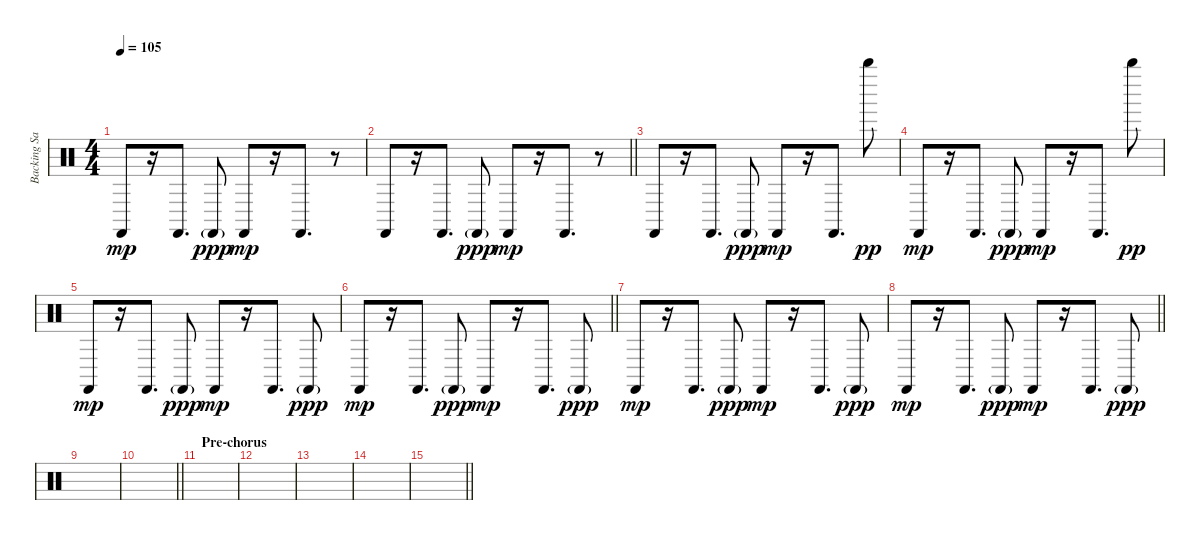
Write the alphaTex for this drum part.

\track ("Backing Samples " "Backing Sa") {instrument percussion}
\staff {score}
\articulation defaults
\ts (4 4)
\tempo 105
\clef neutral
\ks c "Castanets (hit)".8{dy mp}
r.16 "Castanets (hit)".8{d} "Castanets (hit)"{g}.8{dy ppp} "Castanets (hit)".8{dy mp} r.16 "Castanets (hit)".8{d} r.8 |
\barLineRight lightlight "Castanets (hit)".8
r.16 "Castanets (hit)".8{d} "Castanets (hit)"{g}.8{dy ppp} "Castanets (hit)".8{dy mp} r.16 "Castanets (hit)".8{d} r.8 |
"Castanets (hit)".8 r.16 "Castanets (hit)".8{d} "Castanets (hit)"{g}.8{dy ppp} "Castanets (hit)".8{dy mp} r.16 "Castanets (hit)".8{d} "Whistle high (hit)".8{dy pp} |
"Castanets (hit)".8{dy mp} r.16 "Castanets (hit)".8{d} "Castanets (hit)"{g}.8{dy ppp} "Castanets (hit)".8{dy mp} r.16 "Castanets (hit)".8{d} "Whistle high (hit)".8{dy pp} |
"Castanets (hit)".8{dy mp} r.16 "Castanets (hit)".8{d} "Castanets (hit)"{g}.8{dy ppp} "Castanets (hit)".8{dy mp} r.16 "Castanets (hit)".8{d} "Castanets (hit)"{g}.8{dy ppp} |
\barLineRight lightlight "Castanets (hit)".8{dy mp}
r.16 "Castanets (hit)".8{d} "Castanets (hit)"{g}.8{dy ppp} "Castanets (hit)".8{dy mp} r.16 "Castanets (hit)".8{d} "Castanets (hit)"{g}.8{dy ppp} |
"Castanets (hit)".8{dy mp} r.16 "Castanets (hit)".8{d} "Castanets (hit)"{g}.8{dy ppp} "Castanets (hit)".8{dy mp} r.16 "Castanets (hit)".8{d} "Castanets (hit)"{g}.8{dy ppp} |
\barLineRight lightlight "Castanets (hit)".8{dy mp}
r.16 "Castanets (hit)".8{d} "Castanets (hit)"{g}.8{dy ppp} "Castanets (hit)".8{dy mp} r.16 "Castanets (hit)".8{d} "Castanets (hit)"{g}.8{dy ppp} |
|
\barLineRight lightlight
|
\section ("" "Pre-chorus")
|
|
|
|
\barLineRight lightlight
